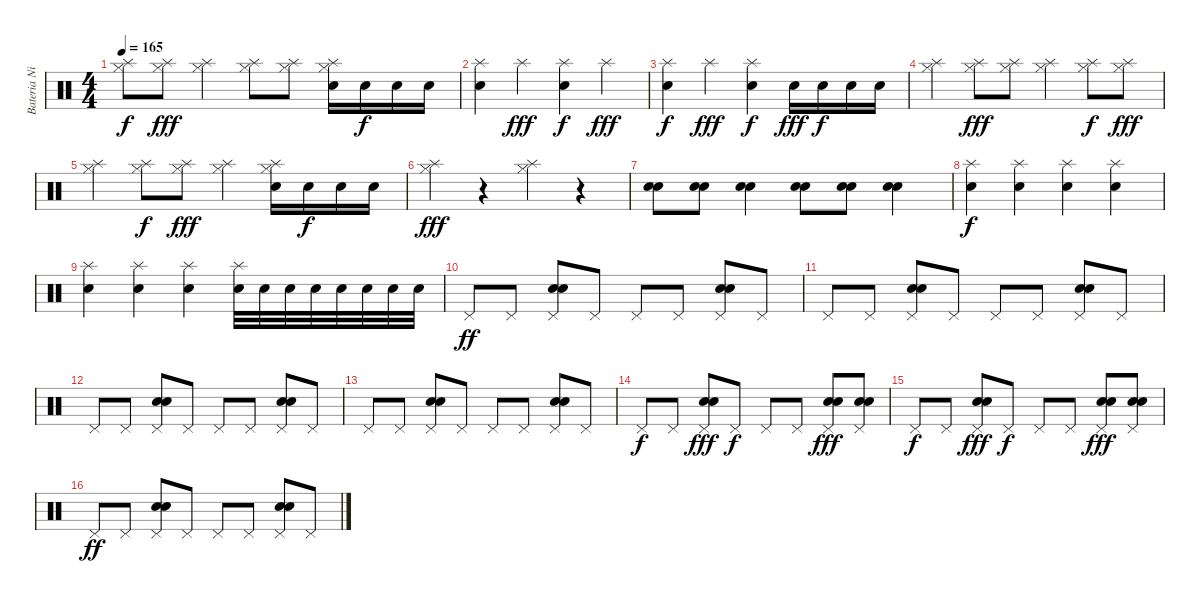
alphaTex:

\track ("Bateria Nicolas Cabrera" "Bateria Ni") {instrument percussion}
\staff {score}
\articulation defaults
\ts (4 4)
\tempo 165
\clef neutral
\ks c
("Splash (hit)" "Hi-Hat (closed)").8{dy f} ("Splash (hit)" "Hi-Hat (closed)").8{dy fff} ("Splash (hit)" "Hi-Hat (closed)").4 ("Splash (hit)" "Hi-Hat (closed)").8 ("Splash (hit)" "Hi-Hat (closed)").8 ("Electric Snare (hit)" "Hi-Hat (closed)" "Splash (hit)").16 "Electric Snare (hit)".16{dy f} "Electric Snare (hit)".16 "Electric Snare (hit)".16 |
("Splash (hit)" "Electric Snare (hit)").4 "Splash (hit)".4{dy fff} ("Splash (hit)" "Electric Snare (hit)").4{dy f} "Splash (hit)".4{dy fff} |
("Splash (hit)" "Electric Snare (hit)").4{dy f} "Splash (hit)".4{dy fff} ("Splash (hit)" "Electric Snare (hit)").4{dy f} "Electric Snare (hit)".16{dy fff} "Electric Snare (hit)".16{dy f} "Electric Snare (hit)".16 "Electric Snare (hit)".16 |
("Splash (hit)" "Hi-Hat (closed)").4 ("Splash (hit)" "Hi-Hat (closed)").8{dy fff} ("Splash (hit)" "Hi-Hat (closed)").8 ("Splash (hit)" "Hi-Hat (closed)").4 ("Splash (hit)" "Hi-Hat (closed)").8{dy f} ("Splash (hit)" "Hi-Hat (closed)").8{dy fff} |
("Splash (hit)" "Hi-Hat (closed)").4 ("Splash (hit)" "Hi-Hat (closed)").8{dy f} ("Splash (hit)" "Hi-Hat (closed)").8{dy fff} ("Splash (hit)" "Hi-Hat (closed)").4 ("Electric Snare (hit)" "Hi-Hat (closed)" "Splash (hit)").16 "Electric Snare (hit)".16{dy f} "Electric Snare (hit)".16 "Electric Snare (hit)".16 |
("Splash (hit)" "Hi-Hat (closed)").4{dy fff} r.4 ("Splash (hit)" "Hi-Hat (closed)").4 r.4 |
("Electric Snare (hit)" "Electric Snare (hit)").8 ("Electric Snare (hit)" "Electric Snare (hit)").8 ("Electric Snare (hit)" "Electric Snare (hit)").4 ("Electric Snare (hit)" "Electric Snare (hit)").8 ("Electric Snare (hit)" "Electric Snare (hit)").8 ("Electric Snare (hit)" "Electric Snare (hit)").4 |
("Electric Snare (hit)" "Splash (hit)").4{dy f} ("Electric Snare (hit)" "Splash (hit)").4 ("Electric Snare (hit)" "Splash (hit)").4 ("Electric Snare (hit)" "Splash (hit)").4 |
("Electric Snare (hit)" "Splash (hit)").4 ("Electric Snare (hit)" "Splash (hit)").4 ("Electric Snare (hit)" "Splash (hit)").4 ("Electric Snare (hit)" "Splash (hit)").32 "Electric Snare (hit)".32 "Snare (hit) 2".32 "Electric Snare (hit)".32 "Electric Snare (hit)".32 "Electric Snare (hit)".32 "Electric Snare (hit)".32 "Electric Snare (hit)".32 |
"Pedal Hi-Hat (hit)".8{dy ff} "Pedal Hi-Hat (hit)".8 ("Electric Snare (hit)" "Electric Snare (hit)" "Pedal Hi-Hat (hit)").8 "Pedal Hi-Hat (hit)".8 "Pedal Hi-Hat (hit)".8 "Pedal Hi-Hat (hit)".8 ("Electric Snare (hit)" "Electric Snare (hit)" "Pedal Hi-Hat (hit)").8 "Pedal Hi-Hat (hit)".8 |
"Pedal Hi-Hat (hit)".8 "Pedal Hi-Hat (hit)".8 ("Electric Snare (hit)" "Electric Snare (hit)" "Pedal Hi-Hat (hit)").8 "Pedal Hi-Hat (hit)".8 "Pedal Hi-Hat (hit)".8 "Pedal Hi-Hat (hit)".8 ("Electric Snare (hit)" "Electric Snare (hit)" "Pedal Hi-Hat (hit)").8 "Pedal Hi-Hat (hit)".8 |
"Pedal Hi-Hat (hit)".8 "Pedal Hi-Hat (hit)".8 ("Electric Snare (hit)" "Electric Snare (hit)" "Pedal Hi-Hat (hit)").8 "Pedal Hi-Hat (hit)".8 "Pedal Hi-Hat (hit)".8 "Pedal Hi-Hat (hit)".8 ("Electric Snare (hit)" "Electric Snare (hit)" "Pedal Hi-Hat (hit)").8 "Pedal Hi-Hat (hit)".8 |
"Pedal Hi-Hat (hit)".8 "Pedal Hi-Hat (hit)".8 ("Electric Snare (hit)" "Electric Snare (hit)" "Pedal Hi-Hat (hit)").8 "Pedal Hi-Hat (hit)".8 "Pedal Hi-Hat (hit)".8 "Pedal Hi-Hat (hit)".8 ("Electric Snare (hit)" "Electric Snare (hit)" "Pedal Hi-Hat (hit)").8 "Pedal Hi-Hat (hit)".8 |
"Pedal Hi-Hat (hit)".8{dy f} "Pedal Hi-Hat (hit)".8 ("Electric Snare (hit)" "Electric Snare (hit)" "Pedal Hi-Hat (hit)").8{dy fff} "Pedal Hi-Hat (hit)".8{dy f} "Pedal Hi-Hat (hit)".8 "Pedal Hi-Hat (hit)".8 ("Electric Snare (hit)" "Electric Snare (hit)" "Pedal Hi-Hat (hit)").8{dy fff} ("Electric Snare (hit)" "Electric Snare (hit)" "Pedal Hi-Hat (hit)").8 |
"Pedal Hi-Hat (hit)".8{dy f} "Pedal Hi-Hat (hit)".8 ("Electric Snare (hit)" "Electric Snare (hit)" "Pedal Hi-Hat (hit)").8{dy fff} "Pedal Hi-Hat (hit)".8{dy f} "Pedal Hi-Hat (hit)".8 "Pedal Hi-Hat (hit)".8 ("Electric Snare (hit)" "Electric Snare (hit)" "Pedal Hi-Hat (hit)").8{dy fff} ("Electric Snare (hit)" "Electric Snare (hit)" "Pedal Hi-Hat (hit)").8 |
"Pedal Hi-Hat (hit)".8{dy ff} "Pedal Hi-Hat (hit)".8 ("Electric Snare (hit)" "Electric Snare (hit)" "Pedal Hi-Hat (hit)").8 "Pedal Hi-Hat (hit)".8 "Pedal Hi-Hat (hit)".8 "Pedal Hi-Hat (hit)".8 ("Electric Snare (hit)" "Electric Snare (hit)" "Pedal Hi-Hat (hit)").8 "Pedal Hi-Hat (hit)".8
